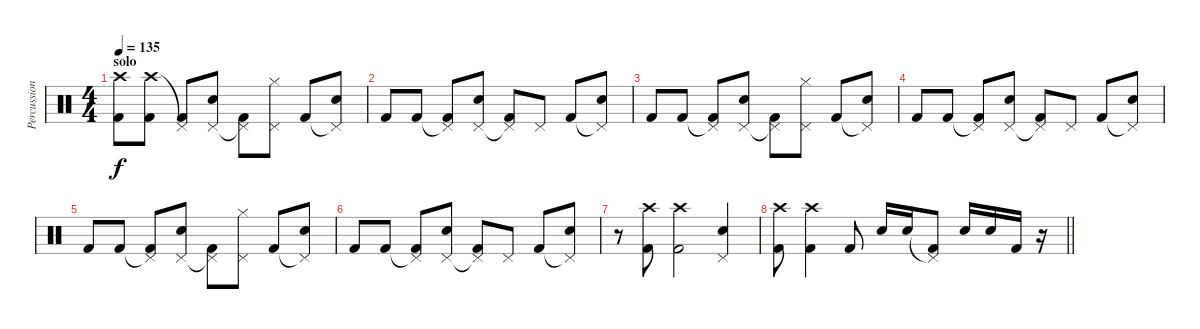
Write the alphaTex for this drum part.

\track ("Percussion" "Percussion") {instrument percussion}
\staff {score}
\articulation defaults
\ts (4 4)
\section ("" "solo")
\tempo 135
\clef neutral
\ks c
("Crash high (hit)" "Kick (hit) 2").8{dy f} ("Crash high (hit)" "Kick (hit) 2").8 ("Pedal Hi-Hat (hit)"{t} "Kick (hit) 2").8 ("Pedal Hi-Hat (hit)" "Electric Snare (hit)").8 ("Pedal Hi-Hat (hit)"{t} "Kick (hit) 2").8 ("Pedal Hi-Hat (hit)" "Hi-Hat (closed)").8 "Kick (hit) 2".8 ("Pedal Hi-Hat (hit)"{t} "Electric Snare (hit)").8 |
"Kick (hit) 2".8 "Kick (hit) 2".8 ("Pedal Hi-Hat (hit)"{t} "Kick (hit) 2").8 ("Pedal Hi-Hat (hit)" "Electric Snare (hit)").8 ("Pedal Hi-Hat (hit)"{t} "Kick (hit) 2").8 "Pedal Hi-Hat (hit)".8 "Kick (hit) 2".8 ("Pedal Hi-Hat (hit)"{t} "Electric Snare (hit)").8 |
"Kick (hit) 2".8 "Kick (hit) 2".8 ("Pedal Hi-Hat (hit)"{t} "Kick (hit) 2").8 ("Pedal Hi-Hat (hit)" "Electric Snare (hit)").8 ("Pedal Hi-Hat (hit)"{t} "Kick (hit) 2").8 ("Pedal Hi-Hat (hit)" "Hi-Hat (closed)").8 "Kick (hit) 2".8 ("Pedal Hi-Hat (hit)"{t} "Electric Snare (hit)").8 |
"Kick (hit) 2".8 "Kick (hit) 2".8 ("Pedal Hi-Hat (hit)"{t} "Kick (hit) 2").8 ("Pedal Hi-Hat (hit)" "Electric Snare (hit)").8 ("Pedal Hi-Hat (hit)"{t} "Kick (hit) 2").8 "Pedal Hi-Hat (hit)".8 "Kick (hit) 2".8 ("Pedal Hi-Hat (hit)"{t} "Electric Snare (hit)").8 |
"Kick (hit) 2".8 "Kick (hit) 2".8 ("Pedal Hi-Hat (hit)"{t} "Kick (hit) 2").8 ("Pedal Hi-Hat (hit)" "Electric Snare (hit)").8 ("Pedal Hi-Hat (hit)"{t} "Kick (hit) 2").8 ("Pedal Hi-Hat (hit)" "Hi-Hat (closed)").8 "Kick (hit) 2".8 ("Pedal Hi-Hat (hit)"{t} "Electric Snare (hit)").8 |
"Kick (hit) 2".8 "Kick (hit) 2".8 ("Pedal Hi-Hat (hit)"{t} "Kick (hit) 2").8 ("Pedal Hi-Hat (hit)" "Electric Snare (hit)").8 ("Pedal Hi-Hat (hit)"{t} "Kick (hit) 2").8 "Pedal Hi-Hat (hit)".8 "Kick (hit) 2".8 ("Pedal Hi-Hat (hit)"{t} "Electric Snare (hit)").8 |
r.8 ("Crash high (hit)" "Kick (hit) 2").8 ("Crash high (hit)" "Kick (hit) 2").2 ("Pedal Hi-Hat (hit)" "Snare (hit)").4 |
\barLineRight lightlight
("Crash high (hit)" "Kick (hit) 2").8 ("Crash high (hit)" "Kick (hit) 2").4 "Kick (hit) 2".8 "Electric Snare (hit)".16 "Electric Snare (hit)".16 ("Pedal Hi-Hat (hit)"{t} "Kick (hit) 2").8 "Electric Snare (hit)".16 "Electric Snare (hit)".16 "Kick (hit) 2".16 r.16
